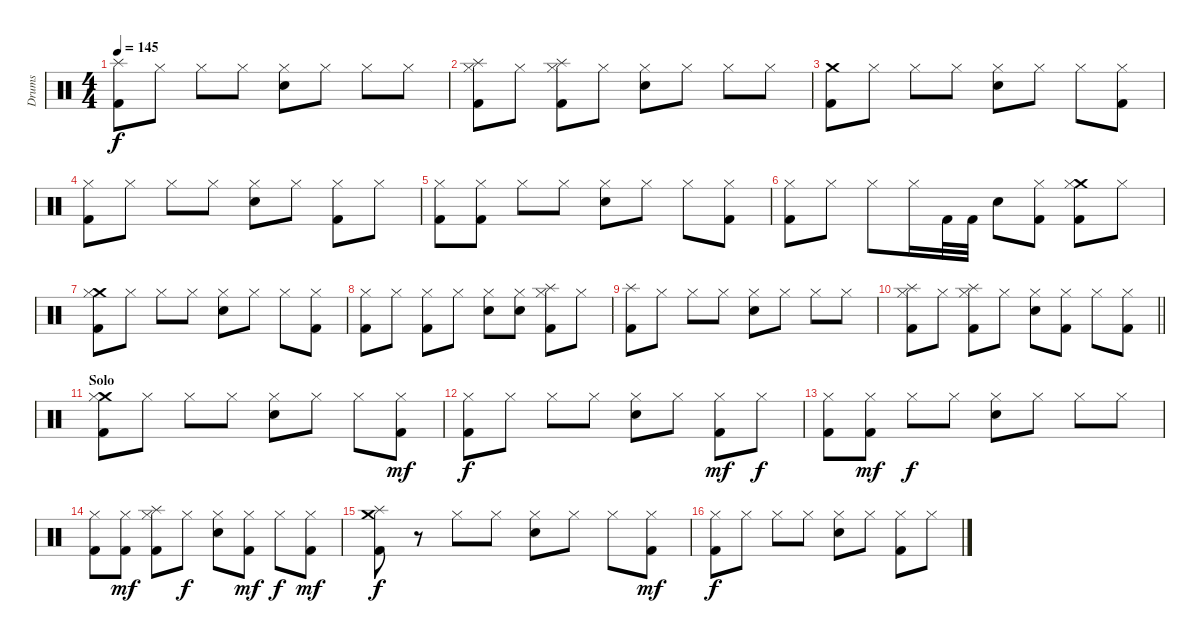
\track ("Drums" "Drums") {instrument percussion}
\staff {score}
\articulation defaults
\ts (4 4)
\tempo 145
\clef neutral
\ks c
("Splash (hit)" "Kick (hit) 2").8{dy f} "Hi-Hat (closed)".8 "Hi-Hat (closed)".8 "Hi-Hat (closed)".8 ("Hi-Hat (closed)" "Snare (hit) 2").8 "Hi-Hat (closed)".8 "Hi-Hat (closed)".8 "Hi-Hat (closed)".8 |
("Splash (hit)" "Hi-Hat (closed)" "Kick (hit) 2").8 "Hi-Hat (closed)".8 ("Splash (hit)" "Hi-Hat (closed)" "Kick (hit) 2").8 "Hi-Hat (closed)".8 ("Hi-Hat (closed)" "Snare (hit) 2").8 "Hi-Hat (closed)".8 "Hi-Hat (closed)".8 "Hi-Hat (closed)".8 |
("Crash medium (hit)" "Kick (hit) 2").8 "Hi-Hat (closed)".8 "Hi-Hat (closed)".8 "Hi-Hat (closed)".8 ("Hi-Hat (closed)" "Snare (hit) 2").8 "Hi-Hat (closed)".8 "Hi-Hat (closed)".8 ("Hi-Hat (closed)" "Kick (hit) 2").8 |
("Hi-Hat (closed)" "Kick (hit) 2").8 "Hi-Hat (closed)".8 "Hi-Hat (closed)".8 "Hi-Hat (closed)".8 ("Hi-Hat (closed)" "Snare (hit) 2").8 "Hi-Hat (closed)".8 ("Hi-Hat (closed)" "Kick (hit) 2").8 "Hi-Hat (closed)".8 |
("Hi-Hat (closed)" "Kick (hit) 2").8 ("Hi-Hat (closed)" "Kick (hit) 2").8 "Hi-Hat (closed)".8 "Hi-Hat (closed)".8 ("Hi-Hat (closed)" "Snare (hit) 2").8 "Hi-Hat (closed)".8 "Hi-Hat (closed)".8 ("Hi-Hat (closed)" "Kick (hit) 2").8 |
("Hi-Hat (closed)" "Kick (hit) 2").8 "Hi-Hat (closed)".8 "Hi-Hat (closed)".8 "Hi-Hat (closed)".16 "Kick (hit) 2".32 "Kick (hit) 2".32 "Snare (hit) 2".8 ("Hi-Hat (closed)" "Kick (hit) 2").8 ("Crash medium (hit)" "Hi-Hat (closed)" "Kick (hit) 2").8 "Hi-Hat (closed)".8 |
("Crash medium (hit)" "Hi-Hat (closed)" "Kick (hit) 2").8 "Hi-Hat (closed)".8 "Hi-Hat (closed)".8 "Hi-Hat (closed)".8 ("Hi-Hat (closed)" "Snare (hit) 2").8 "Hi-Hat (closed)".8 "Hi-Hat (closed)".8 ("Hi-Hat (closed)" "Kick (hit) 2").8 |
("Hi-Hat (closed)" "Kick (hit) 2").8 "Hi-Hat (closed)".8 ("Hi-Hat (closed)" "Kick (hit) 2").8 "Hi-Hat (closed)".8 ("Hi-Hat (closed)" "Snare (hit) 2").8 ("Hi-Hat (closed)" "Snare (hit) 2").8 ("Splash (hit)" "Hi-Hat (closed)" "Kick (hit) 2").8 "Hi-Hat (closed)".8 |
("Splash (hit)" "Kick (hit) 2").8 "Hi-Hat (closed)".8 "Hi-Hat (closed)".8 "Hi-Hat (closed)".8 ("Hi-Hat (closed)" "Snare (hit) 2").8 "Hi-Hat (closed)".8 "Hi-Hat (closed)".8 "Hi-Hat (closed)".8 |
\barLineRight lightlight
("Splash (hit)" "Hi-Hat (closed)" "Kick (hit) 2").8 "Hi-Hat (closed)".8 ("Splash (hit)" "Hi-Hat (closed)" "Kick (hit) 2").8 "Hi-Hat (closed)".8 ("Hi-Hat (closed)" "Snare (hit) 2").8 ("Hi-Hat (closed)" "Kick (hit) 2").8 "Hi-Hat (closed)".8 ("Hi-Hat (closed)" "Kick (hit) 2").8 |
\section ("" "Solo")
("Crash medium (hit)" "Hi-Hat (closed)" "Kick (hit) 2").8 "Hi-Hat (closed)".8 "Hi-Hat (closed)".8 "Hi-Hat (closed)".8 ("Hi-Hat (closed)" "Snare (hit) 2").8 "Hi-Hat (closed)".8 "Hi-Hat (closed)".8 ("Hi-Hat (closed)" "Kick (hit) 2").8{dy mf} |
("Hi-Hat (closed)" "Kick (hit) 2").8{dy f} "Hi-Hat (closed)".8 "Hi-Hat (closed)".8 "Hi-Hat (closed)".8 ("Hi-Hat (closed)" "Snare (hit) 2").8 "Hi-Hat (closed)".8 ("Hi-Hat (closed)" "Kick (hit) 2").8{dy mf} "Hi-Hat (closed)".8{dy f} |
("Hi-Hat (closed)" "Kick (hit) 2").8 ("Hi-Hat (closed)" "Kick (hit) 2").8{dy mf} "Hi-Hat (closed)".8{dy f} "Hi-Hat (closed)".8 ("Hi-Hat (closed)" "Snare (hit) 2").8 "Hi-Hat (closed)".8 "Hi-Hat (closed)".8 "Hi-Hat (closed)".8 |
("Hi-Hat (closed)" "Kick (hit) 2").8 ("Hi-Hat (closed)" "Kick (hit) 2").8{dy mf} ("Splash (hit)" "Hi-Hat (closed)" "Kick (hit) 2").8 "Hi-Hat (closed)".8{dy f} ("Hi-Hat (closed)" "Snare (hit) 2").8 ("Hi-Hat (closed)" "Kick (hit) 2").8{dy mf} "Hi-Hat (closed)".8{dy f} ("Hi-Hat (closed)" "Kick (hit) 2").8{dy mf} |
("Crash medium (hit)" "Splash (hit)" "Kick (hit) 2").8{dy f} r.8 "Hi-Hat (closed)".8 "Hi-Hat (closed)".8 ("Hi-Hat (closed)" "Snare (hit) 2").8 "Hi-Hat (closed)".8 "Hi-Hat (closed)".8 ("Hi-Hat (closed)" "Kick (hit) 2").8{dy mf} |
("Hi-Hat (closed)" "Kick (hit) 2").8{dy f} "Hi-Hat (closed)".8 "Hi-Hat (closed)".8 "Hi-Hat (closed)".8 ("Hi-Hat (closed)" "Snare (hit) 2").8 "Hi-Hat (closed)".8 ("Hi-Hat (closed)" "Kick (hit) 2").8 "Hi-Hat (closed)".8
